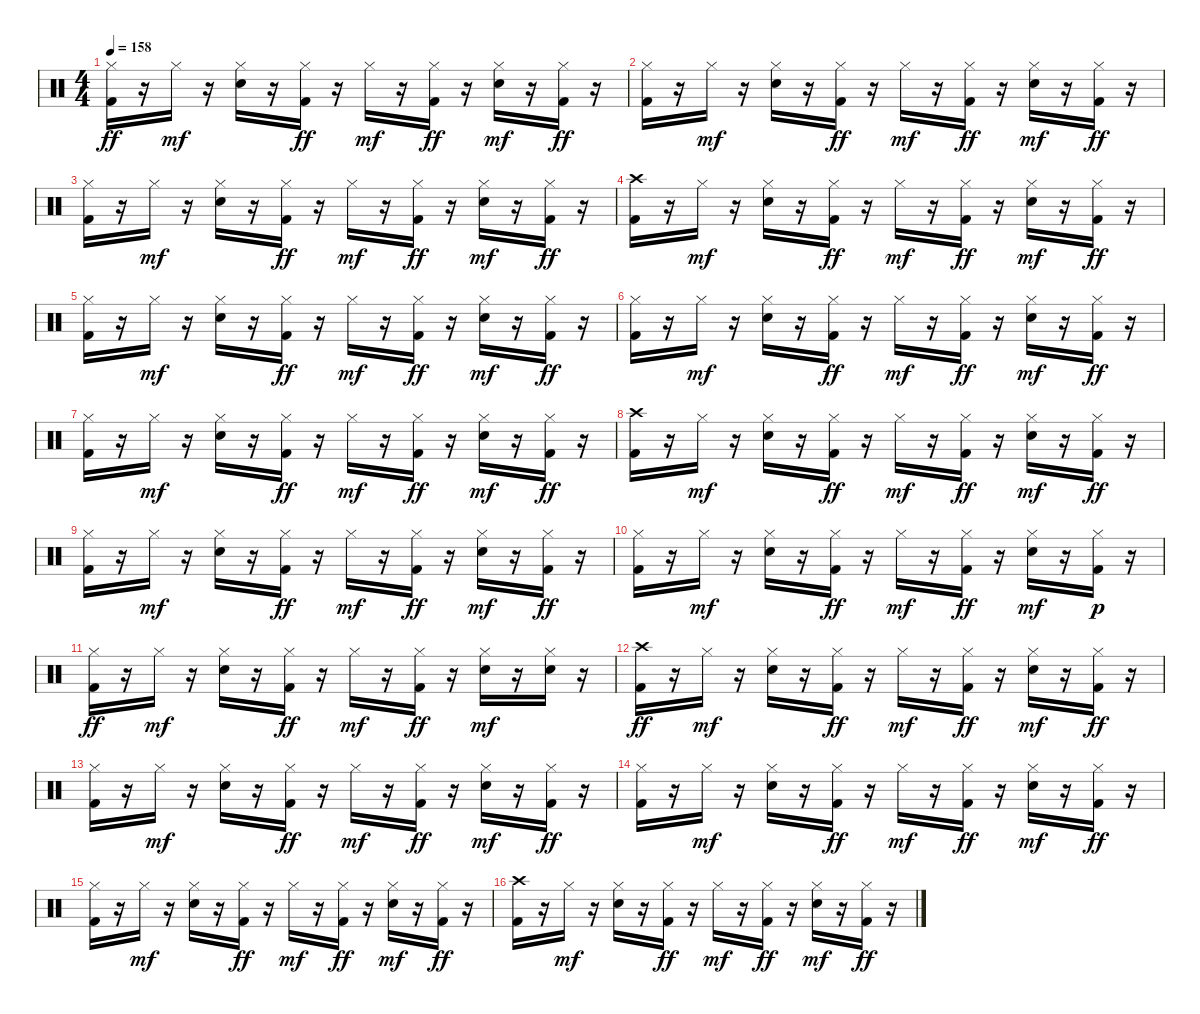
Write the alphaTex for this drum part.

\track ("   " "   ") {instrument percussion}
\staff
\articulation defaults
\ts (4 4)
\tempo 158
\clef neutral
\ks c
("Hi-Hat (closed)" "Kick (hit) 2").16{dy ff} r.16 "Hi-Hat (closed)".16{dy mf} r.16 ("Hi-Hat (closed)" "Electric Snare (hit)").16 r.16 ("Hi-Hat (closed)" "Kick (hit) 2").16{dy ff} r.16 "Hi-Hat (closed)".16{dy mf} r.16 ("Hi-Hat (closed)" "Kick (hit) 2").16{dy ff} r.16 ("Hi-Hat (closed)" "Electric Snare (hit)").16{dy mf} r.16 ("Hi-Hat (closed)" "Kick (hit) 2").16{dy ff} r.16 |
("Hi-Hat (closed)" "Kick (hit) 2").16 r.16 "Hi-Hat (closed)".16{dy mf} r.16 ("Hi-Hat (closed)" "Electric Snare (hit)").16 r.16 ("Hi-Hat (closed)" "Kick (hit) 2").16{dy ff} r.16 "Hi-Hat (closed)".16{dy mf} r.16 ("Hi-Hat (closed)" "Kick (hit) 2").16{dy ff} r.16 ("Hi-Hat (closed)" "Electric Snare (hit)").16{dy mf} r.16 ("Hi-Hat (closed)" "Kick (hit) 2").16{dy ff} r.16 |
("Hi-Hat (closed)" "Kick (hit) 2").16 r.16 "Hi-Hat (closed)".16{dy mf} r.16 ("Hi-Hat (closed)" "Electric Snare (hit)").16 r.16 ("Hi-Hat (closed)" "Kick (hit) 2").16{dy ff} r.16 "Hi-Hat (closed)".16{dy mf} r.16 ("Hi-Hat (closed)" "Kick (hit) 2").16{dy ff} r.16 ("Hi-Hat (closed)" "Electric Snare (hit)").16{dy mf} r.16 ("Hi-Hat (closed)" "Kick (hit) 2").16{dy ff} r.16 |
("Crash high (hit)" "Kick (hit) 2").16 r.16 "Hi-Hat (closed)".16{dy mf} r.16 ("Hi-Hat (closed)" "Electric Snare (hit)").16 r.16 ("Hi-Hat (closed)" "Kick (hit) 2").16{dy ff} r.16 "Hi-Hat (closed)".16{dy mf} r.16 ("Hi-Hat (closed)" "Kick (hit) 2").16{dy ff} r.16 ("Hi-Hat (closed)" "Electric Snare (hit)").16{dy mf} r.16 ("Hi-Hat (closed)" "Kick (hit) 2").16{dy ff} r.16 |
("Hi-Hat (closed)" "Kick (hit) 2").16 r.16 "Hi-Hat (closed)".16{dy mf} r.16 ("Hi-Hat (closed)" "Electric Snare (hit)").16 r.16 ("Hi-Hat (closed)" "Kick (hit) 2").16{dy ff} r.16 "Hi-Hat (closed)".16{dy mf} r.16 ("Hi-Hat (closed)" "Kick (hit) 2").16{dy ff} r.16 ("Hi-Hat (closed)" "Electric Snare (hit)").16{dy mf} r.16 ("Hi-Hat (closed)" "Kick (hit) 2").16{dy ff} r.16 |
("Hi-Hat (closed)" "Kick (hit) 2").16 r.16 "Hi-Hat (closed)".16{dy mf} r.16 ("Hi-Hat (closed)" "Electric Snare (hit)").16 r.16 ("Hi-Hat (closed)" "Kick (hit) 2").16{dy ff} r.16 "Hi-Hat (closed)".16{dy mf} r.16 ("Hi-Hat (closed)" "Kick (hit) 2").16{dy ff} r.16 ("Hi-Hat (closed)" "Electric Snare (hit)").16{dy mf} r.16 ("Hi-Hat (closed)" "Kick (hit) 2").16{dy ff} r.16 |
("Hi-Hat (closed)" "Kick (hit) 2").16 r.16 "Hi-Hat (closed)".16{dy mf} r.16 ("Hi-Hat (closed)" "Electric Snare (hit)").16 r.16 ("Hi-Hat (closed)" "Kick (hit) 2").16{dy ff} r.16 "Hi-Hat (closed)".16{dy mf} r.16 ("Hi-Hat (closed)" "Kick (hit) 2").16{dy ff} r.16 ("Hi-Hat (closed)" "Electric Snare (hit)").16{dy mf} r.16 ("Hi-Hat (closed)" "Kick (hit) 2").16{dy ff} r.16 |
("Crash high (hit)" "Kick (hit) 2").16 r.16 "Hi-Hat (closed)".16{dy mf} r.16 ("Hi-Hat (closed)" "Electric Snare (hit)").16 r.16 ("Hi-Hat (closed)" "Kick (hit) 2").16{dy ff} r.16 "Hi-Hat (closed)".16{dy mf} r.16 ("Hi-Hat (closed)" "Kick (hit) 2").16{dy ff} r.16 ("Hi-Hat (closed)" "Electric Snare (hit)").16{dy mf} r.16 ("Hi-Hat (closed)" "Kick (hit) 2").16{dy ff} r.16 |
("Hi-Hat (closed)" "Kick (hit) 2").16 r.16 "Hi-Hat (closed)".16{dy mf} r.16 ("Hi-Hat (closed)" "Electric Snare (hit)").16 r.16 ("Hi-Hat (closed)" "Kick (hit) 2").16{dy ff} r.16 "Hi-Hat (closed)".16{dy mf} r.16 ("Hi-Hat (closed)" "Kick (hit) 2").16{dy ff} r.16 ("Hi-Hat (closed)" "Electric Snare (hit)").16{dy mf} r.16 ("Hi-Hat (closed)" "Kick (hit) 2").16{dy ff} r.16 |
("Hi-Hat (closed)" "Kick (hit) 2").16 r.16 "Hi-Hat (closed)".16{dy mf} r.16 ("Hi-Hat (closed)" "Electric Snare (hit)").16 r.16 ("Hi-Hat (closed)" "Kick (hit) 2").16{dy ff} r.16 "Hi-Hat (closed)".16{dy mf} r.16 ("Hi-Hat (closed)" "Kick (hit) 2").16{dy ff} r.16 ("Hi-Hat (closed)" "Electric Snare (hit)").16{dy mf} r.16 ("Hi-Hat (closed)" "Kick (hit) 2").16{dy p} r.16 |
("Hi-Hat (closed)" "Kick (hit) 2").16{dy ff} r.16 "Hi-Hat (closed)".16{dy mf} r.16 ("Hi-Hat (closed)" "Electric Snare (hit)").16 r.16 ("Hi-Hat (closed)" "Kick (hit) 2").16{dy ff} r.16 "Hi-Hat (closed)".16{dy mf} r.16 ("Hi-Hat (closed)" "Kick (hit) 2").16{dy ff} r.16 ("Hi-Hat (closed)" "Electric Snare (hit)").16{dy mf} r.16 ("Hi-Hat (closed)" "Electric Snare (hit)").16 r.16 |
("Crash high (hit)" "Kick (hit) 2").16{dy ff} r.16 "Hi-Hat (closed)".16{dy mf} r.16 ("Hi-Hat (closed)" "Electric Snare (hit)").16 r.16 ("Hi-Hat (closed)" "Kick (hit) 2").16{dy ff} r.16 "Hi-Hat (closed)".16{dy mf} r.16 ("Hi-Hat (closed)" "Kick (hit) 2").16{dy ff} r.16 ("Hi-Hat (closed)" "Electric Snare (hit)").16{dy mf} r.16 ("Hi-Hat (closed)" "Kick (hit) 2").16{dy ff} r.16 |
("Hi-Hat (closed)" "Kick (hit) 2").16 r.16 "Hi-Hat (closed)".16{dy mf} r.16 ("Hi-Hat (closed)" "Electric Snare (hit)").16 r.16 ("Hi-Hat (closed)" "Kick (hit) 2").16{dy ff} r.16 "Hi-Hat (closed)".16{dy mf} r.16 ("Hi-Hat (closed)" "Kick (hit) 2").16{dy ff} r.16 ("Hi-Hat (closed)" "Electric Snare (hit)").16{dy mf} r.16 ("Hi-Hat (closed)" "Kick (hit) 2").16{dy ff} r.16 |
("Hi-Hat (closed)" "Kick (hit) 2").16 r.16 "Hi-Hat (closed)".16{dy mf} r.16 ("Hi-Hat (closed)" "Electric Snare (hit)").16 r.16 ("Hi-Hat (closed)" "Kick (hit) 2").16{dy ff} r.16 "Hi-Hat (closed)".16{dy mf} r.16 ("Hi-Hat (closed)" "Kick (hit) 2").16{dy ff} r.16 ("Hi-Hat (closed)" "Electric Snare (hit)").16{dy mf} r.16 ("Hi-Hat (closed)" "Kick (hit) 2").16{dy ff} r.16 |
("Hi-Hat (closed)" "Kick (hit) 2").16 r.16 "Hi-Hat (closed)".16{dy mf} r.16 ("Hi-Hat (closed)" "Electric Snare (hit)").16 r.16 ("Hi-Hat (closed)" "Kick (hit) 2").16{dy ff} r.16 "Hi-Hat (closed)".16{dy mf} r.16 ("Hi-Hat (closed)" "Kick (hit) 2").16{dy ff} r.16 ("Hi-Hat (closed)" "Electric Snare (hit)").16{dy mf} r.16 ("Hi-Hat (closed)" "Kick (hit) 2").16{dy ff} r.16 |
("Crash high (hit)" "Kick (hit) 2").16 r.16 "Hi-Hat (closed)".16{dy mf} r.16 ("Hi-Hat (closed)" "Electric Snare (hit)").16 r.16 ("Hi-Hat (closed)" "Kick (hit) 2").16{dy ff} r.16 "Hi-Hat (closed)".16{dy mf} r.16 ("Hi-Hat (closed)" "Kick (hit) 2").16{dy ff} r.16 ("Hi-Hat (closed)" "Electric Snare (hit)").16{dy mf} r.16 ("Hi-Hat (closed)" "Kick (hit) 2").16{dy ff} r.16
